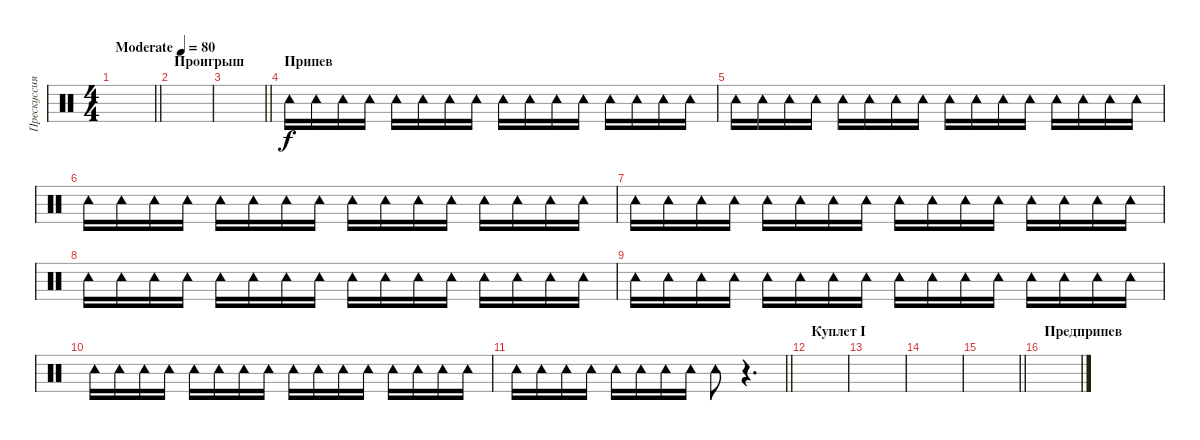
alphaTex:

\track ("Прескуссия" "Прескуссия") {instrument percussion}
\staff {score}
\articulation defaults
\ts (4 4)
\tempo (80 "Moderate")
\clef neutral
\barLineRight lightlight
\ks c
|
\section ("" "Проигрыш")
|
\barLineRight lightlight
|
\section ("" "Припев")
"Tambourine (hit)".16 "Tambourine (hit)".16 "Tambourine (hit)".16 "Tambourine (hit)".16 "Tambourine (hit)".16 "Tambourine (hit)".16 "Tambourine (hit)".16 "Tambourine (hit)".16 "Tambourine (hit)".16 "Tambourine (hit)".16 "Tambourine (hit)".16 "Tambourine (hit)".16 "Tambourine (hit)".16 "Tambourine (hit)".16 "Tambourine (hit)".16 "Tambourine (hit)".16 |
"Tambourine (hit)".16 "Tambourine (hit)".16 "Tambourine (hit)".16 "Tambourine (hit)".16 "Tambourine (hit)".16 "Tambourine (hit)".16 "Tambourine (hit)".16 "Tambourine (hit)".16 "Tambourine (hit)".16 "Tambourine (hit)".16 "Tambourine (hit)".16 "Tambourine (hit)".16 "Tambourine (hit)".16 "Tambourine (hit)".16 "Tambourine (hit)".16 "Tambourine (hit)".16 |
"Tambourine (hit)".16 "Tambourine (hit)".16 "Tambourine (hit)".16 "Tambourine (hit)".16 "Tambourine (hit)".16 "Tambourine (hit)".16 "Tambourine (hit)".16 "Tambourine (hit)".16 "Tambourine (hit)".16 "Tambourine (hit)".16 "Tambourine (hit)".16 "Tambourine (hit)".16 "Tambourine (hit)".16 "Tambourine (hit)".16 "Tambourine (hit)".16 "Tambourine (hit)".16 |
"Tambourine (hit)".16 "Tambourine (hit)".16 "Tambourine (hit)".16 "Tambourine (hit)".16 "Tambourine (hit)".16 "Tambourine (hit)".16 "Tambourine (hit)".16 "Tambourine (hit)".16 "Tambourine (hit)".16 "Tambourine (hit)".16 "Tambourine (hit)".16 "Tambourine (hit)".16 "Tambourine (hit)".16 "Tambourine (hit)".16 "Tambourine (hit)".16 "Tambourine (hit)".16 |
"Tambourine (hit)".16 "Tambourine (hit)".16 "Tambourine (hit)".16 "Tambourine (hit)".16 "Tambourine (hit)".16 "Tambourine (hit)".16 "Tambourine (hit)".16 "Tambourine (hit)".16 "Tambourine (hit)".16 "Tambourine (hit)".16 "Tambourine (hit)".16 "Tambourine (hit)".16 "Tambourine (hit)".16 "Tambourine (hit)".16 "Tambourine (hit)".16 "Tambourine (hit)".16 |
"Tambourine (hit)".16 "Tambourine (hit)".16 "Tambourine (hit)".16 "Tambourine (hit)".16 "Tambourine (hit)".16 "Tambourine (hit)".16 "Tambourine (hit)".16 "Tambourine (hit)".16 "Tambourine (hit)".16 "Tambourine (hit)".16 "Tambourine (hit)".16 "Tambourine (hit)".16 "Tambourine (hit)".16 "Tambourine (hit)".16 "Tambourine (hit)".16 "Tambourine (hit)".16 |
"Tambourine (hit)".16 "Tambourine (hit)".16 "Tambourine (hit)".16 "Tambourine (hit)".16 "Tambourine (hit)".16 "Tambourine (hit)".16 "Tambourine (hit)".16 "Tambourine (hit)".16 "Tambourine (hit)".16 "Tambourine (hit)".16 "Tambourine (hit)".16 "Tambourine (hit)".16 "Tambourine (hit)".16 "Tambourine (hit)".16 "Tambourine (hit)".16 "Tambourine (hit)".16 |
\barLineRight lightlight "Tambourine (hit)".16 "Tambourine (hit)".16 "Tambourine (hit)".16 "Tambourine (hit)".16 "Tambourine (hit)".16 "Tambourine (hit)".16 "Tambourine (hit)".16 "Tambourine (hit)".16 "Tambourine (hit)".8
r.4{d} |
\section ("" "Куплет I")
|
|
|
\barLineRight lightlight
|
\section ("" "Предприпев")
